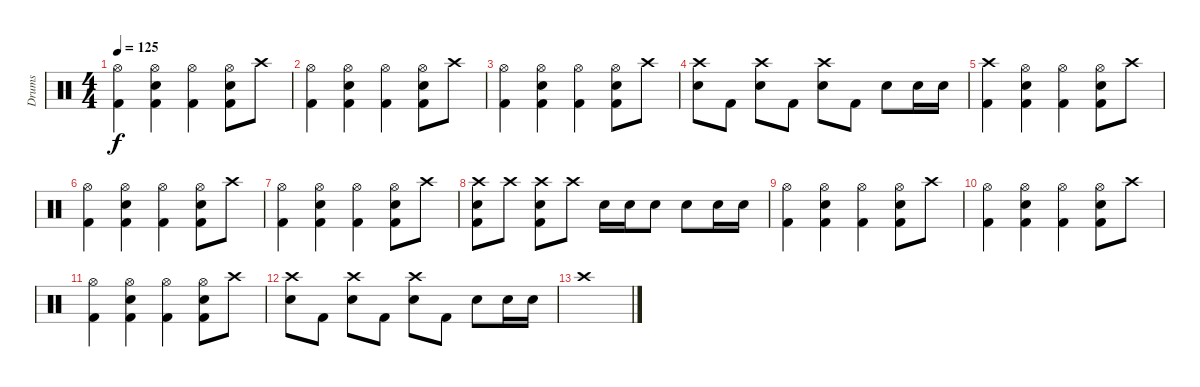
\track ("Drums" "Drums") {instrument percussion}
\staff {score}
\articulation defaults
\ts (4 4)
\tempo 125
\clef neutral
\ks c
("Hi-Hat (open)" "Kick (hit) 2").4{dy f} ("Hi-Hat (open)" "Snare (hit) 2" "Kick (hit) 2").4 ("Hi-Hat (open)" "Kick (hit) 2").4 ("Hi-Hat (open)" "Snare (hit) 2" "Kick (hit) 2").8 "Crash high (hit)".8 |
("Hi-Hat (open)" "Kick (hit) 2").4 ("Hi-Hat (open)" "Snare (hit) 2" "Kick (hit) 2").4 ("Hi-Hat (open)" "Kick (hit) 2").4 ("Hi-Hat (open)" "Snare (hit) 2" "Kick (hit) 2").8 "Crash high (hit)".8 |
("Hi-Hat (open)" "Kick (hit) 2").4 ("Hi-Hat (open)" "Snare (hit) 2" "Kick (hit) 2").4 ("Hi-Hat (open)" "Kick (hit) 2").4 ("Hi-Hat (open)" "Snare (hit) 2" "Kick (hit) 2").8 "Crash high (hit)".8 |
("Crash high (hit)" "Snare (hit) 2").8 "Kick (hit) 2".8 ("Crash high (hit)" "Snare (hit) 2").8 "Kick (hit) 2".8 ("Crash high (hit)" "Snare (hit) 2").8 "Kick (hit) 2".8 "Snare (hit) 2".8 "Snare (hit) 2".16 "Snare (hit) 2".16 |
("Crash high (hit)" "Kick (hit) 2").4 ("Hi-Hat (open)" "Snare (hit) 2" "Kick (hit) 2").4 ("Hi-Hat (open)" "Kick (hit) 2").4 ("Hi-Hat (open)" "Snare (hit) 2" "Kick (hit) 2").8 "Crash high (hit)".8 |
("Hi-Hat (open)" "Kick (hit) 2").4 ("Hi-Hat (open)" "Snare (hit) 2" "Kick (hit) 2").4 ("Hi-Hat (open)" "Kick (hit) 2").4 ("Hi-Hat (open)" "Snare (hit) 2" "Kick (hit) 2").8 "Crash high (hit)".8 |
("Hi-Hat (open)" "Kick (hit) 2").4 ("Hi-Hat (open)" "Snare (hit) 2" "Kick (hit) 2").4 ("Hi-Hat (open)" "Kick (hit) 2").4 ("Hi-Hat (open)" "Snare (hit) 2" "Kick (hit) 2").8 "Crash high (hit)".8 |
("Crash high (hit)" "Snare (hit) 2" "Kick (hit) 2").8 "Crash high (hit)".8 ("Crash high (hit)" "Snare (hit) 2" "Kick (hit) 2").8 "Crash high (hit)".8 "Snare (hit) 2".16 "Snare (hit) 2".16 "Snare (hit) 2".8 "Snare (hit) 2".8 "Snare (hit) 2".16 "Snare (hit) 2".16 |
("Hi-Hat (open)" "Kick (hit) 2").4 ("Hi-Hat (open)" "Snare (hit) 2" "Kick (hit) 2").4 ("Hi-Hat (open)" "Kick (hit) 2").4 ("Hi-Hat (open)" "Snare (hit) 2" "Kick (hit) 2").8 "Crash high (hit)".8 |
("Hi-Hat (open)" "Kick (hit) 2").4 ("Hi-Hat (open)" "Snare (hit) 2" "Kick (hit) 2").4 ("Hi-Hat (open)" "Kick (hit) 2").4 ("Hi-Hat (open)" "Snare (hit) 2" "Kick (hit) 2").8 "Crash high (hit)".8 |
("Hi-Hat (open)" "Kick (hit) 2").4 ("Hi-Hat (open)" "Snare (hit) 2" "Kick (hit) 2").4 ("Hi-Hat (open)" "Kick (hit) 2").4 ("Hi-Hat (open)" "Snare (hit) 2" "Kick (hit) 2").8 "Crash high (hit)".8 |
("Crash high (hit)" "Snare (hit) 2").8 "Kick (hit) 2".8 ("Crash high (hit)" "Snare (hit) 2").8 "Kick (hit) 2".8 ("Crash high (hit)" "Snare (hit) 2").8 "Kick (hit) 2".8 "Snare (hit) 2".8 "Snare (hit) 2".16 "Snare (hit) 2".16 |
"Crash high (hit)".1
